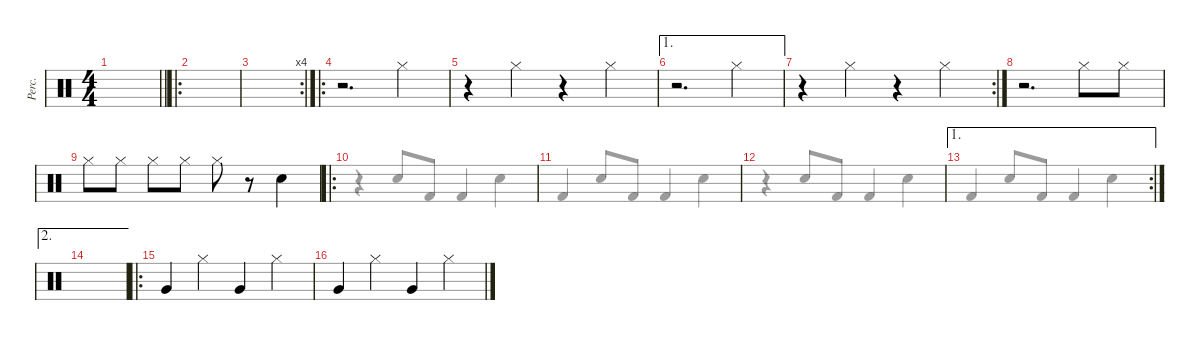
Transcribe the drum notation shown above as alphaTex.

\defaultSystemsLayout 4
\hideDynamics
\bracketExtendMode groupsimilarinstruments
\otherSystemsTrackNameOrientation horizontal
\track ("Percussions 1" "Perc.") {instrument percussion}
\staff {score}
\articulation defaults
\voice
\ts (4 4)
\tempo (120 hide)
\clef neutral
\scale
0.311111
\barLineRight lightlight
\ks c
|
\ro
\scale
0.311111 |
\rc 4
\scale
0.333333 |
\ro
\scale
0.365591 r.2{d beam Down} "Hi-Hat (closed)".4{beam Down} |
\scale
0.301075 r.4{beam Down} "Hi-Hat (closed)".4{beam Down} r.4{beam Down} "Hi-Hat (closed)".4{beam Down} |
\ae 1
\scale
0.321839 r.2{d beam Down} "Hi-Hat (closed)".4{beam Down} |
\rc 2
\scale
0.356322 r.4{beam Down} "Hi-Hat (closed)".4{beam Down} r.4{beam Down} "Hi-Hat (closed)".4{beam Down} |
\scale
0.321839 r.2{d beam Down} "Hi-Hat (closed)".8{beam Down} "Hi-Hat (closed)".8{beam Down} |
\scale
0.311111 "Hi-Hat (closed)".8{beam Down} "Hi-Hat (closed)".8{beam Down} "Hi-Hat (closed)".8{beam Down} "Hi-Hat (closed)".8{beam Down} "Hi-Hat (closed)".8{beam Down} r.8{beam Down} "Snare (hit) 2".4{beam Down} |
\ro
\scale
0.377778 |
\scale
0.311111 |
\scale
0.321839 |
\ae 1
\rc 2
\scale
0.356322 |
\ae 2
\scale
0.321839 |
\ro
\scale
0.333333 "Very Low Tom (hit)".4{beam Up} "Hi-Hat (closed)".4{beam Down} "Very Low Tom (hit)".4{beam Up} "Hi-Hat (closed)".4{beam Down} |
\scale
0.333333 "Very Low Tom (hit)".4{beam Up} "Hi-Hat (closed)".4{beam Down} "Very Low Tom (hit)".4{beam Up} "Hi-Hat (closed)".4{beam Down}
\voice
\clef neutral
\ottava regular
\simile none
\scale
0.311111
\barLineRight lightlight
\ks c
|
\scale
0.311111 |
\scale
0.333333 |
\scale
0.365591 |
\scale
0.301075 |
\scale
0.321839 |
\scale
0.356322 |
\scale
0.321839 |
\scale
0.311111 |
\scale
0.377778 r.4{beam Down} "Snare (hit) 2".8{beam Up} "Kick (hit) 2".8{beam Up} "Kick (hit) 2".4{beam Up} "Snare (hit) 2".4{beam Down} |
\scale
0.311111 "Kick (hit) 2".4{beam Up} "Snare (hit) 2".8{beam Up} "Kick (hit) 2".8{beam Up} "Kick (hit) 2".4{beam Up} "Snare (hit) 2".4{beam Down} |
\scale
0.321839 r.4{beam Down} "Snare (hit) 2".8{beam Up} "Kick (hit) 2".8{beam Up} "Kick (hit) 2".4{beam Up} "Snare (hit) 2".4{beam Down} |
\scale
0.356322 "Kick (hit) 2".4{beam Up} "Snare (hit) 2".8{beam Up} "Kick (hit) 2".8{beam Up} "Kick (hit) 2".4{beam Up} "Snare (hit) 2".4{beam Down} |
\scale
0.321839 |
\scale
0.333333 |
\scale
0.333333
